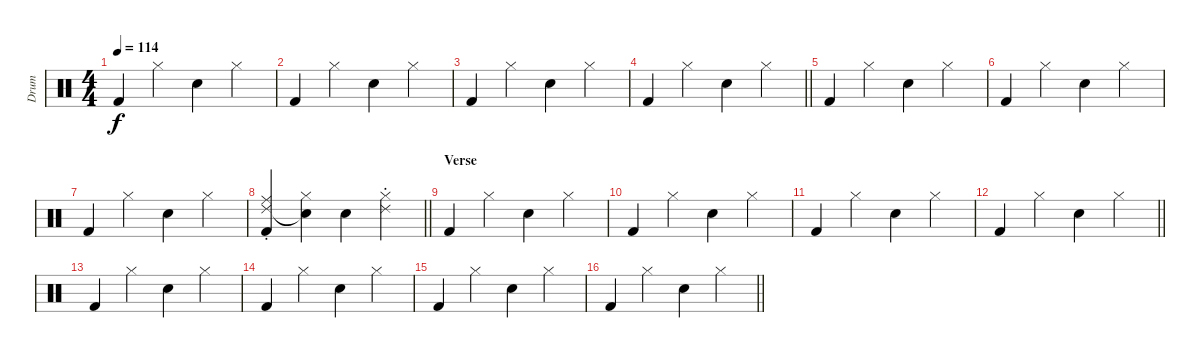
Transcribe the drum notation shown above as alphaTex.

\track ("Drum" "Drum") {instrument percussion}
\staff {score}
\articulation defaults
\ts (4 4)
\tempo 114
\clef neutral
\ks c "Kick (hit) 2".4{dy f} "Hi-Hat (closed)".4 "Snare (hit) 2".4 "Hi-Hat (closed)".4
|
"Kick (hit) 2".4 "Hi-Hat (closed)".4 "Snare (hit) 2".4 "Hi-Hat (closed)".4 |
"Kick (hit) 2".4 "Hi-Hat (closed)".4 "Snare (hit) 2".4 "Hi-Hat (closed)".4 |
\barLineRight lightlight "Kick (hit) 2".4 "Hi-Hat (closed)".4 "Snare (hit) 2".4 "Hi-Hat (closed)".4
|
"Kick (hit) 2".4 "Hi-Hat (closed)".4 "Snare (hit) 2".4 "Hi-Hat (closed)".4 |
"Kick (hit) 2".4 "Hi-Hat (closed)".4 "Snare (hit) 2".4 "Hi-Hat (closed)".4 |
"Kick (hit) 2".4 "Hi-Hat (closed)".4 "Snare (hit) 2".4 "Hi-Hat (closed)".4 |
\barLineRight lightlight
("Ride (middle)" "Ride (choke) 2" "Kick (hit) 2").4 ("Hi-Hat (closed)" "Snare (hit)"{t}).4 "Snare (hit) 2".4 ("Hi-Hat (closed)" "Ride (choke) 2").4 |
\section ("" "Verse")
"Kick (hit) 2".4 "Hi-Hat (closed)".4 "Snare (hit) 2".4 "Hi-Hat (closed)".4 |
"Kick (hit) 2".4 "Hi-Hat (closed)".4 "Snare (hit) 2".4 "Hi-Hat (closed)".4 |
"Kick (hit) 2".4 "Hi-Hat (closed)".4 "Snare (hit) 2".4 "Hi-Hat (closed)".4 |
\barLineRight lightlight "Kick (hit) 2".4 "Hi-Hat (closed)".4 "Snare (hit) 2".4 "Hi-Hat (closed)".4
|
"Kick (hit) 2".4 "Hi-Hat (closed)".4 "Snare (hit) 2".4 "Hi-Hat (closed)".4 |
"Kick (hit) 2".4 "Hi-Hat (closed)".4 "Snare (hit) 2".4 "Hi-Hat (closed)".4 |
"Kick (hit) 2".4 "Hi-Hat (closed)".4 "Snare (hit) 2".4 "Hi-Hat (closed)".4 |
\barLineRight lightlight "Kick (hit) 2".4 "Hi-Hat (closed)".4 "Snare (hit) 2".4 "Hi-Hat (closed)".4
